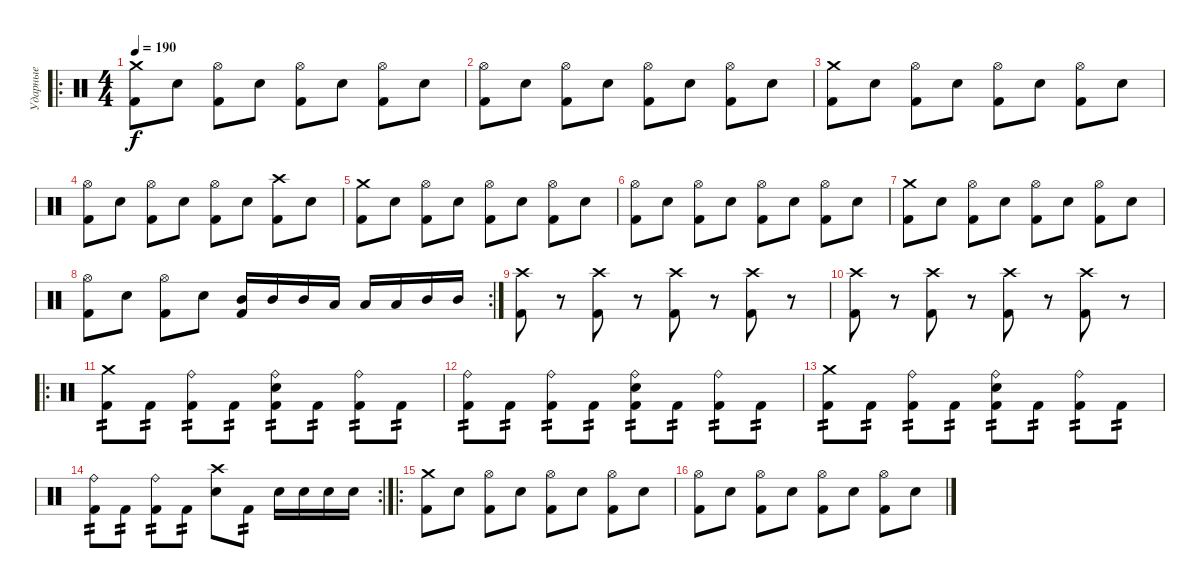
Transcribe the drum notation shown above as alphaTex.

\track ("Ударные" "Ударные") {instrument percussion}
\staff {score}
\articulation defaults
\ro
\ts (4 4)
\tempo 190
\clef neutral
\ks c
("Crash medium (hit)" "Kick (hit) 2").8{dy f} "Electric Snare (hit)".8 ("Hi-Hat (open)" "Kick (hit) 2").8 "Electric Snare (hit)".8 ("Hi-Hat (open)" "Kick (hit) 2").8 "Electric Snare (hit)".8 ("Hi-Hat (open)" "Kick (hit) 2").8 "Electric Snare (hit)".8 |
("Hi-Hat (open)" "Kick (hit) 2").8 "Electric Snare (hit)".8 ("Hi-Hat (open)" "Kick (hit) 2").8 "Electric Snare (hit)".8 ("Hi-Hat (open)" "Kick (hit) 2").8 "Electric Snare (hit)".8 ("Hi-Hat (open)" "Kick (hit) 2").8 "Electric Snare (hit)".8 |
("Crash medium (hit)" "Kick (hit) 2").8 "Electric Snare (hit)".8 ("Hi-Hat (open)" "Kick (hit) 2").8 "Electric Snare (hit)".8 ("Hi-Hat (open)" "Kick (hit) 2").8 "Electric Snare (hit)".8 ("Hi-Hat (open)" "Kick (hit) 2").8 "Electric Snare (hit)".8 |
("Hi-Hat (open)" "Kick (hit) 2").8 "Electric Snare (hit)".8 ("Hi-Hat (open)" "Kick (hit) 2").8 "Electric Snare (hit)".8 ("Hi-Hat (open)" "Kick (hit) 2").8 "Electric Snare (hit)".8 ("Crash high (hit)" "Kick (hit) 2").8 "Electric Snare (hit)".8 |
("Crash medium (hit)" "Kick (hit) 2").8 "Electric Snare (hit)".8 ("Hi-Hat (open)" "Kick (hit) 2").8 "Electric Snare (hit)".8 ("Hi-Hat (open)" "Kick (hit) 2").8 "Electric Snare (hit)".8 ("Hi-Hat (open)" "Kick (hit) 2").8 "Electric Snare (hit)".8 |
("Hi-Hat (open)" "Kick (hit) 2").8 "Electric Snare (hit)".8 ("Hi-Hat (open)" "Kick (hit) 2").8 "Electric Snare (hit)".8 ("Hi-Hat (open)" "Kick (hit) 2").8 "Electric Snare (hit)".8 ("Hi-Hat (open)" "Kick (hit) 2").8 "Electric Snare (hit)".8 |
("Crash medium (hit)" "Kick (hit) 2").8 "Electric Snare (hit)".8 ("Hi-Hat (open)" "Kick (hit) 2").8 "Electric Snare (hit)".8 ("Hi-Hat (open)" "Kick (hit) 2").8 "Electric Snare (hit)".8 ("Hi-Hat (open)" "Kick (hit) 2").8 "Electric Snare (hit)".8 |
\rc 2
("Hi-Hat (open)" "Kick (hit) 2").8 "Electric Snare (hit)".8 ("Hi-Hat (open)" "Kick (hit) 2").8 "Electric Snare (hit)".8 ("Mid Tom (hit)" "Kick (hit) 2").16 "Mid Tom (hit)".16 "Mid Tom (hit)".16 "Low Tom (hit)".16 "Low Tom (hit)".16 "Low Tom (hit)".16 "Mid Tom (hit)".16 "Mid Tom (hit)".16 |
("Crash high (hit)" "Kick (hit) 2").8 r.8 ("Crash high (hit)" "Kick (hit) 2").8 r.8 ("Crash high (hit)" "Kick (hit) 2").8 r.8 ("Crash high (hit)" "Kick (hit) 2").8 r.8 |
("Crash high (hit)" "Kick (hit) 2").8 r.8 ("Crash high (hit)" "Kick (hit) 2").8 r.8 ("Crash high (hit)" "Kick (hit) 2").8 r.8 ("Crash high (hit)" "Kick (hit) 2").8 r.8 |
\ro
("Crash medium (hit)" "Kick (hit) 2").8{tp 2} "Kick (hit) 2".8{tp 2} ("Ride (bell)" "Kick (hit) 2").8{tp 2} "Kick (hit) 2".8{tp 2} ("Ride (bell)" "Electric Snare (hit)" "Kick (hit) 2").8{tp 2} "Kick (hit) 2".8{tp 2} ("Ride (bell)" "Kick (hit) 2").8{tp 2} "Kick (hit) 2".8{tp 2} |
("Ride (bell)" "Kick (hit) 2").8{tp 2} "Kick (hit) 2".8{tp 2} ("Ride (bell)" "Kick (hit) 2").8{tp 2} "Kick (hit) 2".8{tp 2} ("Ride (bell)" "Electric Snare (hit)" "Kick (hit) 2").8{tp 2} "Kick (hit) 2".8{tp 2} ("Ride (bell)" "Kick (hit) 2").8{tp 2} "Kick (hit) 2".8{tp 2} |
("Crash medium (hit)" "Kick (hit) 2").8{tp 2} "Kick (hit) 2".8{tp 2} ("Ride (bell)" "Kick (hit) 2").8{tp 2} "Kick (hit) 2".8{tp 2} ("Ride (bell)" "Electric Snare (hit)" "Kick (hit) 2").8{tp 2} "Kick (hit) 2".8{tp 2} ("Ride (bell)" "Kick (hit) 2").8{tp 2} "Kick (hit) 2".8{tp 2} |
\rc 2
("Ride (bell)" "Kick (hit) 2").8{tp 2} "Kick (hit) 2".8{tp 2} ("Ride (bell)" "Kick (hit) 2").8{tp 2} "Kick (hit) 2".8{tp 2} ("Crash high (hit)" "Electric Snare (hit)").8 "Kick (hit) 2".8{tp 2} "Electric Snare (hit)".16 "Electric Snare (hit)".16 "Electric Snare (hit)".16 "Electric Snare (hit)".16 |
\ro
("Crash medium (hit)" "Kick (hit) 2").8 "Electric Snare (hit)".8 ("Hi-Hat (open)" "Kick (hit) 2").8 "Electric Snare (hit)".8 ("Hi-Hat (open)" "Kick (hit) 2").8 "Electric Snare (hit)".8 ("Hi-Hat (open)" "Kick (hit) 2").8 "Electric Snare (hit)".8 |
("Hi-Hat (open)" "Kick (hit) 2").8 "Electric Snare (hit)".8 ("Hi-Hat (open)" "Kick (hit) 2").8 "Electric Snare (hit)".8 ("Hi-Hat (open)" "Kick (hit) 2").8 "Electric Snare (hit)".8 ("Hi-Hat (open)" "Kick (hit) 2").8 "Electric Snare (hit)".8
